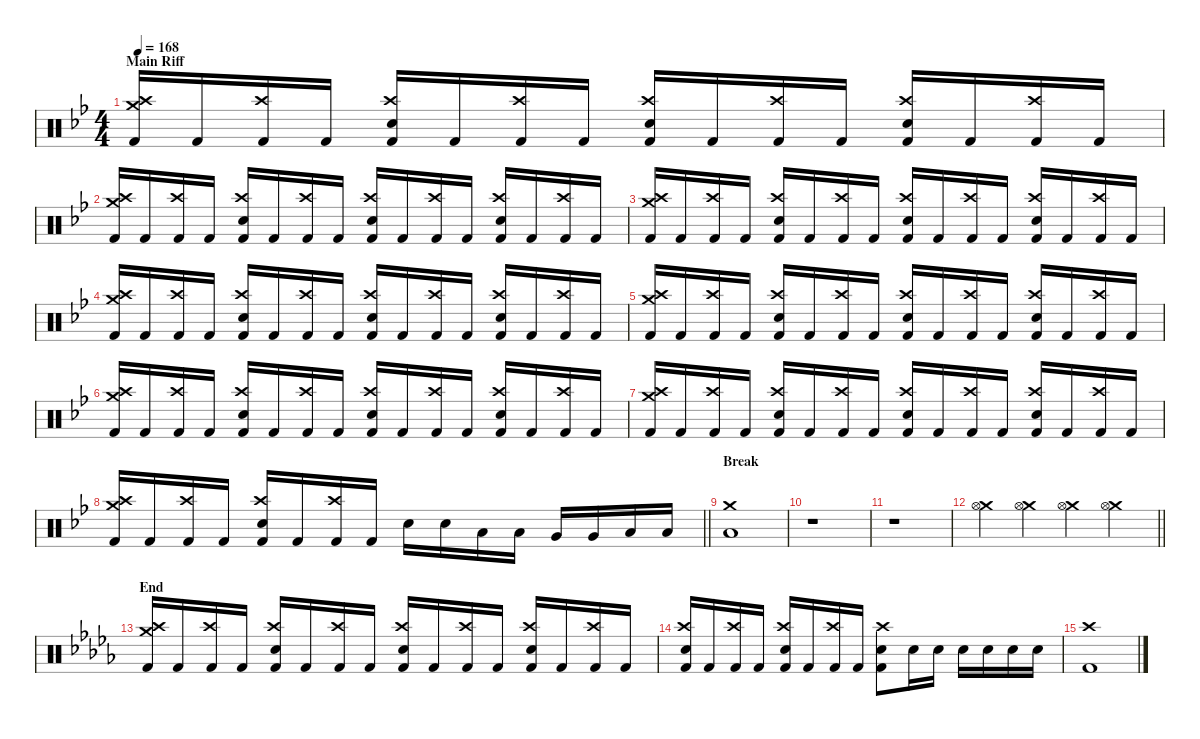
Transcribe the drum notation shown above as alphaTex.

\defaultSystemsLayout 4
\hideDynamics
\bracketExtendMode nobrackets
\singleTrackTrackNamePolicy hidden
\multiTrackTrackNamePolicy hidden
\firstSystemTrackNameMode fullname
\firstSystemTrackNameOrientation horizontal
\otherSystemsTrackNameOrientation horizontal
\track ("Percussion" "drm.") {instrument percussion}
\staff {score}
\articulation defaults
\ts (4 4)
\section ("" "Main Riff")
\tempo 168
\clef neutral
\ks bb
("Crash high (hit)"{acc forcenatural} "Crash medium (hit)"{acc forcenatural} "Kick (hit) 2"{acc forcenatural}).16{dy f beam Up} "Kick (hit) 2"{acc forcenatural}.16{beam Up} ("Crash high (hit)"{acc forcenatural} "Kick (hit) 2"{acc forcenatural}).16{beam Up} "Kick (hit) 2"{acc forcenatural}.16{beam Up} ("Crash high (hit)"{acc forcenatural} "Snare (hit) 2"{acc forcenatural} "Kick (hit) 2"{acc forcenatural}).16{beam Up} "Kick (hit) 2"{acc forcenatural}.16{beam Up} ("Crash high (hit)"{acc forcenatural} "Kick (hit) 2"{acc forcenatural}).16{beam Up} "Kick (hit) 2"{acc forcenatural}.16{beam Up} ("Crash high (hit)"{acc forcenatural} "Snare (hit) 2"{acc forcenatural} "Kick (hit) 2"{acc forcenatural}).16{beam Up} "Kick (hit) 2"{acc forcenatural}.16{beam Up} ("Crash high (hit)"{acc forcenatural} "Kick (hit) 2"{acc forcenatural}).16{beam Up} "Kick (hit) 2"{acc forcenatural}.16{beam Up} ("Crash high (hit)"{acc forcenatural} "Snare (hit) 2"{acc forcenatural} "Kick (hit) 2"{acc forcenatural}).16{beam Up} "Kick (hit) 2"{acc forcenatural}.16{beam Up} ("Crash high (hit)"{acc forcenatural} "Kick (hit) 2"{acc forcenatural}).16{beam Up} "Kick (hit) 2"{acc forcenatural}.16{beam Up} |
("Crash high (hit)"{acc forcenatural} "Crash medium (hit)"{acc forcenatural} "Kick (hit) 2"{acc forcenatural}).16{beam Up} "Kick (hit) 2"{acc forcenatural}.16{beam Up} ("Crash high (hit)"{acc forcenatural} "Kick (hit) 2"{acc forcenatural}).16{beam Up} "Kick (hit) 2"{acc forcenatural}.16{beam Up} ("Crash high (hit)"{acc forcenatural} "Snare (hit) 2"{acc forcenatural} "Kick (hit) 2"{acc forcenatural}).16{beam Up} "Kick (hit) 2"{acc forcenatural}.16{beam Up} ("Crash high (hit)"{acc forcenatural} "Kick (hit) 2"{acc forcenatural}).16{beam Up} "Kick (hit) 2"{acc forcenatural}.16{beam Up} ("Crash high (hit)"{acc forcenatural} "Snare (hit) 2"{acc forcenatural} "Kick (hit) 2"{acc forcenatural}).16{beam Up} "Kick (hit) 2"{acc forcenatural}.16{beam Up} ("Crash high (hit)"{acc forcenatural} "Kick (hit) 2"{acc forcenatural}).16{beam Up} "Kick (hit) 2"{acc forcenatural}.16{beam Up} ("Crash high (hit)"{acc forcenatural} "Snare (hit) 2"{acc forcenatural} "Kick (hit) 2"{acc forcenatural}).16{beam Up} "Kick (hit) 2"{acc forcenatural}.16{beam Up} ("Crash high (hit)"{acc forcenatural} "Kick (hit) 2"{acc forcenatural}).16{beam Up} "Kick (hit) 2"{acc forcenatural}.16{beam Up} |
("Crash high (hit)"{acc forcenatural} "Crash medium (hit)"{acc forcenatural} "Kick (hit) 2"{acc forcenatural}).16{beam Up} "Kick (hit) 2"{acc forcenatural}.16{beam Up} ("Crash high (hit)"{acc forcenatural} "Kick (hit) 2"{acc forcenatural}).16{beam Up} "Kick (hit) 2"{acc forcenatural}.16{beam Up} ("Crash high (hit)"{acc forcenatural} "Snare (hit) 2"{acc forcenatural} "Kick (hit) 2"{acc forcenatural}).16{beam Up} "Kick (hit) 2"{acc forcenatural}.16{beam Up} ("Crash high (hit)"{acc forcenatural} "Kick (hit) 2"{acc forcenatural}).16{beam Up} "Kick (hit) 2"{acc forcenatural}.16{beam Up} ("Crash high (hit)"{acc forcenatural} "Snare (hit) 2"{acc forcenatural} "Kick (hit) 2"{acc forcenatural}).16{beam Up} "Kick (hit) 2"{acc forcenatural}.16{beam Up} ("Crash high (hit)"{acc forcenatural} "Kick (hit) 2"{acc forcenatural}).16{beam Up} "Kick (hit) 2"{acc forcenatural}.16{beam Up} ("Crash high (hit)"{acc forcenatural} "Snare (hit) 2"{acc forcenatural} "Kick (hit) 2"{acc forcenatural}).16{beam Up} "Kick (hit) 2"{acc forcenatural}.16{beam Up} ("Crash high (hit)"{acc forcenatural} "Kick (hit) 2"{acc forcenatural}).16{beam Up} "Kick (hit) 2"{acc forcenatural}.16{beam Up} |
("Crash high (hit)"{acc forcenatural} "Crash medium (hit)"{acc forcenatural} "Kick (hit) 2"{acc forcenatural}).16{beam Up} "Kick (hit) 2"{acc forcenatural}.16{beam Up} ("Crash high (hit)"{acc forcenatural} "Kick (hit) 2"{acc forcenatural}).16{beam Up} "Kick (hit) 2"{acc forcenatural}.16{beam Up} ("Crash high (hit)"{acc forcenatural} "Snare (hit) 2"{acc forcenatural} "Kick (hit) 2"{acc forcenatural}).16{beam Up} "Kick (hit) 2"{acc forcenatural}.16{beam Up} ("Crash high (hit)"{acc forcenatural} "Kick (hit) 2"{acc forcenatural}).16{beam Up} "Kick (hit) 2"{acc forcenatural}.16{beam Up} ("Crash high (hit)"{acc forcenatural} "Snare (hit) 2"{acc forcenatural} "Kick (hit) 2"{acc forcenatural}).16{beam Up} "Kick (hit) 2"{acc forcenatural}.16{beam Up} ("Crash high (hit)"{acc forcenatural} "Kick (hit) 2"{acc forcenatural}).16{beam Up} "Kick (hit) 2"{acc forcenatural}.16{beam Up} ("Crash high (hit)"{acc forcenatural} "Snare (hit) 2"{acc forcenatural} "Kick (hit) 2"{acc forcenatural}).16{beam Up} "Kick (hit) 2"{acc forcenatural}.16{beam Up} ("Crash high (hit)"{acc forcenatural} "Kick (hit) 2"{acc forcenatural}).16{beam Up} "Kick (hit) 2"{acc forcenatural}.16{beam Up} |
("Crash high (hit)"{acc forcenatural} "Crash medium (hit)"{acc forcenatural} "Kick (hit) 2"{acc forcenatural}).16{beam Up} "Kick (hit) 2"{acc forcenatural}.16{beam Up} ("Crash high (hit)"{acc forcenatural} "Kick (hit) 2"{acc forcenatural}).16{beam Up} "Kick (hit) 2"{acc forcenatural}.16{beam Up} ("Crash high (hit)"{acc forcenatural} "Snare (hit) 2"{acc forcenatural} "Kick (hit) 2"{acc forcenatural}).16{beam Up} "Kick (hit) 2"{acc forcenatural}.16{beam Up} ("Crash high (hit)"{acc forcenatural} "Kick (hit) 2"{acc forcenatural}).16{beam Up} "Kick (hit) 2"{acc forcenatural}.16{beam Up} ("Crash high (hit)"{acc forcenatural} "Snare (hit) 2"{acc forcenatural} "Kick (hit) 2"{acc forcenatural}).16{beam Up} "Kick (hit) 2"{acc forcenatural}.16{beam Up} ("Crash high (hit)"{acc forcenatural} "Kick (hit) 2"{acc forcenatural}).16{beam Up} "Kick (hit) 2"{acc forcenatural}.16{beam Up} ("Crash high (hit)"{acc forcenatural} "Snare (hit) 2"{acc forcenatural} "Kick (hit) 2"{acc forcenatural}).16{beam Up} "Kick (hit) 2"{acc forcenatural}.16{beam Up} ("Crash high (hit)"{acc forcenatural} "Kick (hit) 2"{acc forcenatural}).16{beam Up} "Kick (hit) 2"{acc forcenatural}.16{beam Up} |
("Crash high (hit)"{acc forcenatural} "Crash medium (hit)"{acc forcenatural} "Kick (hit) 2"{acc forcenatural}).16{beam Up} "Kick (hit) 2"{acc forcenatural}.16{beam Up} ("Crash high (hit)"{acc forcenatural} "Kick (hit) 2"{acc forcenatural}).16{beam Up} "Kick (hit) 2"{acc forcenatural}.16{beam Up} ("Crash high (hit)"{acc forcenatural} "Snare (hit) 2"{acc forcenatural} "Kick (hit) 2"{acc forcenatural}).16{beam Up} "Kick (hit) 2"{acc forcenatural}.16{beam Up} ("Crash high (hit)"{acc forcenatural} "Kick (hit) 2"{acc forcenatural}).16{beam Up} "Kick (hit) 2"{acc forcenatural}.16{beam Up} ("Crash high (hit)"{acc forcenatural} "Snare (hit) 2"{acc forcenatural} "Kick (hit) 2"{acc forcenatural}).16{beam Up} "Kick (hit) 2"{acc forcenatural}.16{beam Up} ("Crash high (hit)"{acc forcenatural} "Kick (hit) 2"{acc forcenatural}).16{beam Up} "Kick (hit) 2"{acc forcenatural}.16{beam Up} ("Crash high (hit)"{acc forcenatural} "Snare (hit) 2"{acc forcenatural} "Kick (hit) 2"{acc forcenatural}).16{beam Up} "Kick (hit) 2"{acc forcenatural}.16{beam Up} ("Crash high (hit)"{acc forcenatural} "Kick (hit) 2"{acc forcenatural}).16{beam Up} "Kick (hit) 2"{acc forcenatural}.16{beam Up} |
("Crash high (hit)"{acc forcenatural} "Crash medium (hit)"{acc forcenatural} "Kick (hit) 2"{acc forcenatural}).16{beam Up} "Kick (hit) 2"{acc forcenatural}.16{beam Up} ("Crash high (hit)"{acc forcenatural} "Kick (hit) 2"{acc forcenatural}).16{beam Up} "Kick (hit) 2"{acc forcenatural}.16{beam Up} ("Crash high (hit)"{acc forcenatural} "Snare (hit) 2"{acc forcenatural} "Kick (hit) 2"{acc forcenatural}).16{beam Up} "Kick (hit) 2"{acc forcenatural}.16{beam Up} ("Crash high (hit)"{acc forcenatural} "Kick (hit) 2"{acc forcenatural}).16{beam Up} "Kick (hit) 2"{acc forcenatural}.16{beam Up} ("Crash high (hit)"{acc forcenatural} "Snare (hit) 2"{acc forcenatural} "Kick (hit) 2"{acc forcenatural}).16{beam Up} "Kick (hit) 2"{acc forcenatural}.16{beam Up} ("Crash high (hit)"{acc forcenatural} "Kick (hit) 2"{acc forcenatural}).16{beam Up} "Kick (hit) 2"{acc forcenatural}.16{beam Up} ("Crash high (hit)"{acc forcenatural} "Snare (hit) 2"{acc forcenatural} "Kick (hit) 2"{acc forcenatural}).16{beam Up} "Kick (hit) 2"{acc forcenatural}.16{beam Up} ("Crash high (hit)"{acc forcenatural} "Kick (hit) 2"{acc forcenatural}).16{beam Up} "Kick (hit) 2"{acc forcenatural}.16{beam Up} |
\barLineRight lightlight
("Crash high (hit)"{acc forcenatural} "Crash medium (hit)"{acc forcenatural} "Kick (hit) 2"{acc forcenatural}).16{beam Up} "Kick (hit) 2"{acc forcenatural}.16{beam Up} ("Crash high (hit)"{acc forcenatural} "Kick (hit) 2"{acc forcenatural}).16{beam Up} "Kick (hit) 2"{acc forcenatural}.16{beam Up} ("Crash high (hit)"{acc forcenatural} "Snare (hit) 2"{acc forcenatural} "Kick (hit) 2"{acc forcenatural}).16{beam Up} "Kick (hit) 2"{acc forcenatural}.16{beam Up} ("Crash high (hit)"{acc forcenatural} "Kick (hit) 2"{acc forcenatural}).16{beam Up} "Kick (hit) 2"{acc forcenatural}.16{beam Up} "Snare (hit) 2"{acc forcenatural}.16{beam Down} "Snare (hit) 2"{acc forcenatural}.16{beam Down} "Low Tom (hit)"{acc forcenatural}.16{beam Down} "Low Tom (hit)"{acc forcenatural}.16{beam Down} "Very Low Tom (hit)"{acc forcenatural}.16{beam Up} "Very Low Tom (hit)"{acc forcenatural}.16{beam Up} "Low Floor Tom (hit)"{acc forcenatural}.16{beam Up} "Low Floor Tom (hit)"{acc forcenatural}.16{beam Up} |
\section ("" "Break")
("Crash medium (hit)"{acc forcenatural} "Low Tom (hit)"{acc forcenatural}).1{beam Down} |
r.1{beam Down} |
r.1{beam Down} |
\barLineRight lightlight
("Crash medium (hit)"{acc forcenatural} "Hi-Hat (open)"{acc forcenatural}).4{beam Down} ("Crash medium (hit)"{acc forcenatural} "Hi-Hat (open)"{acc forcenatural}).4{beam Down} ("Crash medium (hit)"{acc forcenatural} "Hi-Hat (open)"{acc forcenatural}).4{beam Down} ("Crash medium (hit)"{acc forcenatural} "Hi-Hat (open)"{acc forcenatural}).4{beam Down} |
\section ("" "End")
\ks db
("Crash high (hit)"{acc forcenatural} "Crash medium (hit)"{acc forcenatural} "Kick (hit) 2"{acc forcenatural}).16{beam Up} "Kick (hit) 2"{acc forcenatural}.16{beam Up} ("Crash high (hit)"{acc forcenatural} "Kick (hit) 2"{acc forcenatural}).16{beam Up} "Kick (hit) 2"{acc forcenatural}.16{beam Up} ("Crash high (hit)"{acc forcenatural} "Snare (hit) 2"{acc forcenatural} "Kick (hit) 2"{acc forcenatural}).16{beam Up} "Kick (hit) 2"{acc forcenatural}.16{beam Up} ("Crash high (hit)"{acc forcenatural} "Kick (hit) 2"{acc forcenatural}).16{beam Up} "Kick (hit) 2"{acc forcenatural}.16{beam Up} ("Crash high (hit)"{acc forcenatural} "Snare (hit) 2"{acc forcenatural} "Kick (hit) 2"{acc forcenatural}).16{beam Up} "Kick (hit) 2"{acc forcenatural}.16{beam Up} ("Crash high (hit)"{acc forcenatural} "Kick (hit) 2"{acc forcenatural}).16{beam Up} "Kick (hit) 2"{acc forcenatural}.16{beam Up} ("Crash high (hit)"{acc forcenatural} "Snare (hit) 2"{acc forcenatural} "Kick (hit) 2"{acc forcenatural}).16{beam Up} "Kick (hit) 2"{acc forcenatural}.16{beam Up} ("Crash high (hit)"{acc forcenatural} "Kick (hit) 2"{acc forcenatural}).16{beam Up} "Kick (hit) 2"{acc forcenatural}.16{beam Up} |
("Crash high (hit)"{acc forcenatural} "Snare (hit) 2"{acc forcenatural} "Kick (hit) 2"{acc forcenatural}).16{beam Up} "Kick (hit) 2"{acc forcenatural}.16{beam Up} ("Crash high (hit)"{acc forcenatural} "Kick (hit) 2"{acc forcenatural}).16{beam Up} "Kick (hit) 2"{acc forcenatural}.16{beam Up} ("Crash high (hit)"{acc forcenatural} "Snare (hit) 2"{acc forcenatural} "Kick (hit) 2"{acc forcenatural}).16{beam Up} "Kick (hit) 2"{acc forcenatural}.16{beam Up} ("Crash high (hit)"{acc forcenatural} "Kick (hit) 2"{acc forcenatural}).16{beam Up} "Kick (hit) 2"{acc forcenatural}.16{beam Up} ("Crash high (hit)"{acc forcenatural} "Snare (hit) 2"{acc forcenatural} "Kick (hit) 2"{acc forcenatural}).8{beam Down} "Snare (hit) 2"{acc forcenatural}.16{beam Down} "Snare (hit) 2"{acc forcenatural}.16{beam Down} "Snare (hit) 2"{acc forcenatural}.16{beam Down} "Snare (hit) 2"{acc forcenatural}.16{beam Down} "Snare (hit) 2"{acc forcenatural}.16{beam Down} "Snare (hit) 2"{acc forcenatural}.16{beam Down} |
("Crash high (hit)"{acc forcenatural} "Kick (hit) 2"{acc forcenatural}).1{beam Down}
